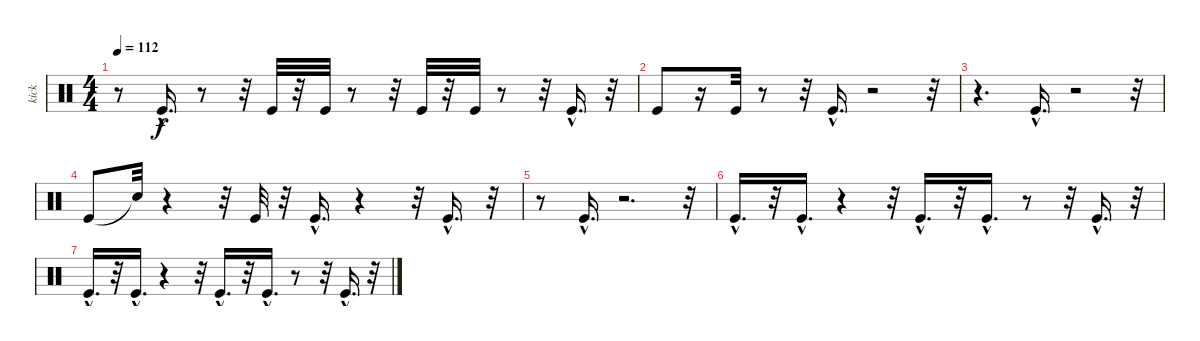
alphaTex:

\track ("kick" "kick") {instrument percussion}
\staff {score}
\articulation defaults
\ts (4 4)
\tempo 112
\clef neutral
\ks c
r.8{dy f} "Kick (hit)"{hac}.16{d} r.8 r.32 "Kick (hit)".32 r.32 "Kick (hit)".32 r.8 r.32 "Kick (hit)".32 r.32 "Kick (hit)".32 r.8 r.32 "Kick (hit)"{hac}.16{d} r.32 |
"Kick (hit)".8 r.16 "Kick (hit)".32 r.8 r.32 "Kick (hit)"{hac}.16{d} r.2 r.32 |
r.4{d} "Kick (hit)"{hac}.16{d} r.2 r.32 |
"Kick (hit)".8 "Snare (hit)"{t}.32 r.4 r.32 "Kick (hit)".32 r.32 "Kick (hit)"{hac}.16{d} r.4 r.32 "Kick (hit)"{hac}.16{d} r.32 |
r.8 "Kick (hit)"{hac}.16{d} r.2{d} r.32 |
"Kick (hit)"{hac}.16{d} r.32 "Kick (hit)"{hac}.16{d} r.4 r.32 "Kick (hit)"{hac}.16{d} r.32 "Kick (hit)"{hac}.16{d} r.8 r.32 "Kick (hit)"{hac}.16{d} r.32 |
"Kick (hit)"{hac}.16{d} r.32 "Kick (hit)"{hac}.16{d} r.4 r.32 "Kick (hit)"{hac}.16{d} r.32 "Kick (hit)"{hac}.16{d} r.8 r.32 "Kick (hit)"{hac}.16{d} r.32
